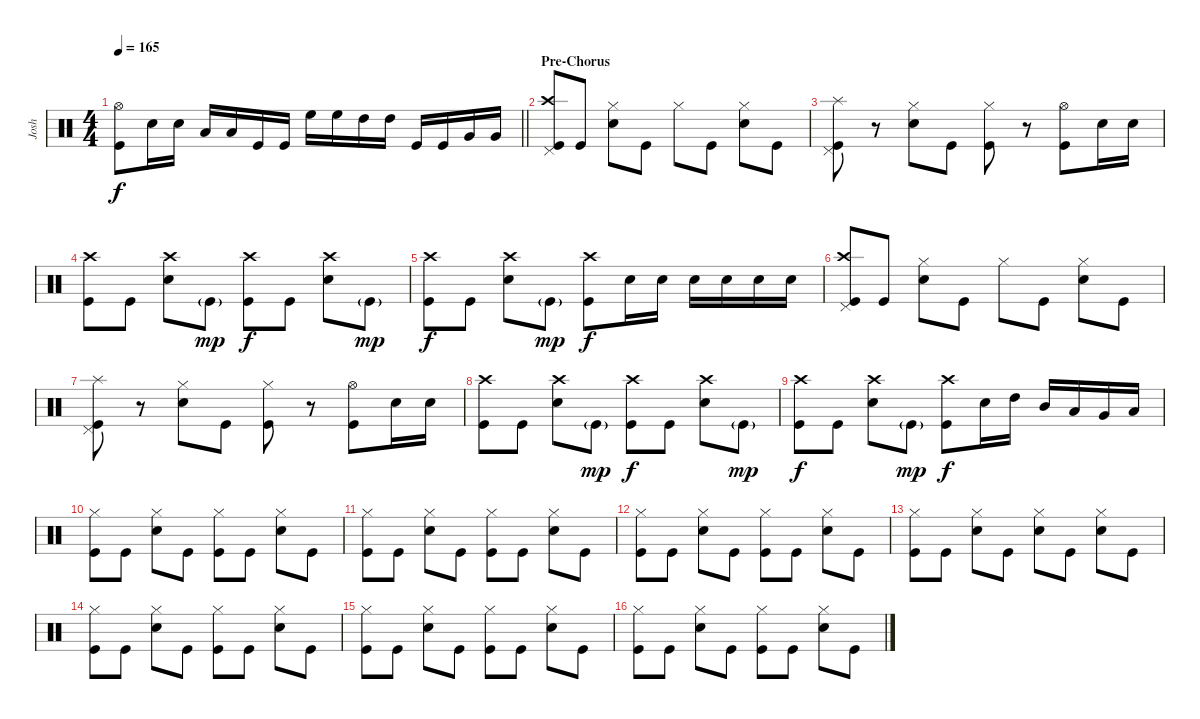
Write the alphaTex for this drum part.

\track ("Josh" "Josh") {instrument percussion}
\staff {score}
\articulation defaults
\ts (4 4)
\tempo 165
\clef neutral
\barLineRight lightlight
\ks c
("Hi-Hat (open)" "Kick (hit)").8{dy f} "Snare (hit) 2".16 "Snare (hit) 2".16 "Low Tom (hit)".16 "Low Tom (hit)".16 "Kick (hit)".16 "Kick (hit)".16 "High Floor Tom (hit)".16 "High Floor Tom (hit)".16 "High Tom (hit)".16 "High Tom (hit)".16 "Kick (hit)".16 "Kick (hit)".16 "Very Low Tom (hit)".16 "Very Low Tom (hit)".16 |
\section ("" "Pre-Chorus")
("Crash high (hit)" "Pedal Hi-Hat (hit)" "Kick (hit)").8 "Kick (hit)".8 ("Hi-Hat (closed)" "Snare (hit) 2").8 "Kick (hit)".8 "Hi-Hat (closed)".8 "Kick (hit)".8 ("Hi-Hat (closed)" "Snare (hit) 2").8 "Kick (hit)".8 |
("Splash (hit)" "Pedal Hi-Hat (hit)" "Kick (hit)").8 r.8 ("Hi-Hat (closed)" "Snare (hit) 2").8 "Kick (hit)".8 ("Hi-Hat (closed)" "Kick (hit)").8 r.8 ("Hi-Hat (open)" "Kick (hit)").8 "Snare (hit) 2".16 "Snare (hit) 2".16 |
("Crash high (hit)" "Kick (hit)").8 "Kick (hit)".8 ("Crash high (hit)" "Snare (hit) 2").8 "Kick (hit)"{g}.8{dy mp} ("Crash high (hit)" "Kick (hit)").8{dy f} "Kick (hit)".8 ("Crash high (hit)" "Snare (hit) 2").8 "Kick (hit)"{g}.8{dy mp} |
("Crash high (hit)" "Kick (hit)").8{dy f} "Kick (hit)".8 ("Crash high (hit)" "Snare (hit) 2").8 "Kick (hit)"{g}.8{dy mp} ("Crash high (hit)" "Kick (hit)").8{dy f} "Snare (hit) 2".16 "Snare (hit) 2".16 "Snare (hit) 2".16 "Snare (hit) 2".16 "Snare (hit) 2".16 "Snare (hit) 2".16 |
("Crash high (hit)" "Pedal Hi-Hat (hit)" "Kick (hit)").8 "Kick (hit)".8 ("Hi-Hat (closed)" "Snare (hit) 2").8 "Kick (hit)".8 "Hi-Hat (closed)".8 "Kick (hit)".8 ("Hi-Hat (closed)" "Snare (hit) 2").8 "Kick (hit)".8 |
("Splash (hit)" "Pedal Hi-Hat (hit)" "Kick (hit)").8 r.8 ("Hi-Hat (closed)" "Snare (hit) 2").8 "Kick (hit)".8 ("Hi-Hat (closed)" "Kick (hit)").8 r.8 ("Hi-Hat (open)" "Kick (hit)").8 "Snare (hit) 2".16 "Snare (hit) 2".16 |
("Crash high (hit)" "Kick (hit)").8 "Kick (hit)".8 ("Crash high (hit)" "Snare (hit) 2").8 "Kick (hit)"{g}.8{dy mp} ("Crash high (hit)" "Kick (hit)").8{dy f} "Kick (hit)".8 ("Crash high (hit)" "Snare (hit) 2").8 "Kick (hit)"{g}.8{dy mp} |
("Crash high (hit)" "Kick (hit)").8{dy f} "Kick (hit)".8 ("Crash high (hit)" "Snare (hit) 2").8 "Kick (hit)"{g}.8{dy mp} ("Crash high (hit)" "Kick (hit)").8{dy f} "Snare (hit) 2".16 "High Tom (hit)".16 "Mid Tom (hit)".16 "Low Tom (hit)".16 "Very Low Tom (hit)".16 "Low Floor Tom (hit)".16 |
("Hi-Hat (closed)" "Kick (hit)").8 "Kick (hit)".8 ("Hi-Hat (closed)" "Snare (hit) 2").8 "Kick (hit)".8 ("Hi-Hat (closed)" "Kick (hit)").8 "Kick (hit)".8 ("Hi-Hat (closed)" "Snare (hit) 2").8 "Kick (hit)".8 |
("Hi-Hat (closed)" "Kick (hit)").8 "Kick (hit)".8 ("Hi-Hat (closed)" "Snare (hit) 2").8 "Kick (hit)".8 ("Hi-Hat (closed)" "Kick (hit)").8 "Kick (hit)".8 ("Hi-Hat (closed)" "Snare (hit) 2").8 "Kick (hit)".8 |
("Hi-Hat (closed)" "Kick (hit)").8 "Kick (hit)".8 ("Hi-Hat (closed)" "Snare (hit) 2").8 "Kick (hit)".8 ("Hi-Hat (closed)" "Kick (hit)").8 "Kick (hit)".8 ("Hi-Hat (closed)" "Snare (hit) 2").8 "Kick (hit)".8 |
("Hi-Hat (closed)" "Kick (hit)").8 "Kick (hit)".8 ("Hi-Hat (closed)" "Snare (hit) 2").8 "Kick (hit)".8 ("Hi-Hat (closed)" "Snare (hit) 2").8 "Kick (hit)".8 ("Hi-Hat (closed)" "Snare (hit) 2").8 "Kick (hit)".8 |
("Hi-Hat (closed)" "Kick (hit)").8 "Kick (hit)".8 ("Hi-Hat (closed)" "Snare (hit) 2").8 "Kick (hit)".8 ("Hi-Hat (closed)" "Kick (hit)").8 "Kick (hit)".8 ("Hi-Hat (closed)" "Snare (hit) 2").8 "Kick (hit)".8 |
("Hi-Hat (closed)" "Kick (hit)").8 "Kick (hit)".8 ("Hi-Hat (closed)" "Snare (hit) 2").8 "Kick (hit)".8 ("Hi-Hat (closed)" "Kick (hit)").8 "Kick (hit)".8 ("Hi-Hat (closed)" "Snare (hit) 2").8 "Kick (hit)".8 |
("Hi-Hat (closed)" "Kick (hit)").8 "Kick (hit)".8 ("Hi-Hat (closed)" "Snare (hit) 2").8 "Kick (hit)".8 ("Hi-Hat (closed)" "Kick (hit)").8 "Kick (hit)".8 ("Hi-Hat (closed)" "Snare (hit) 2").8 "Kick (hit)".8
